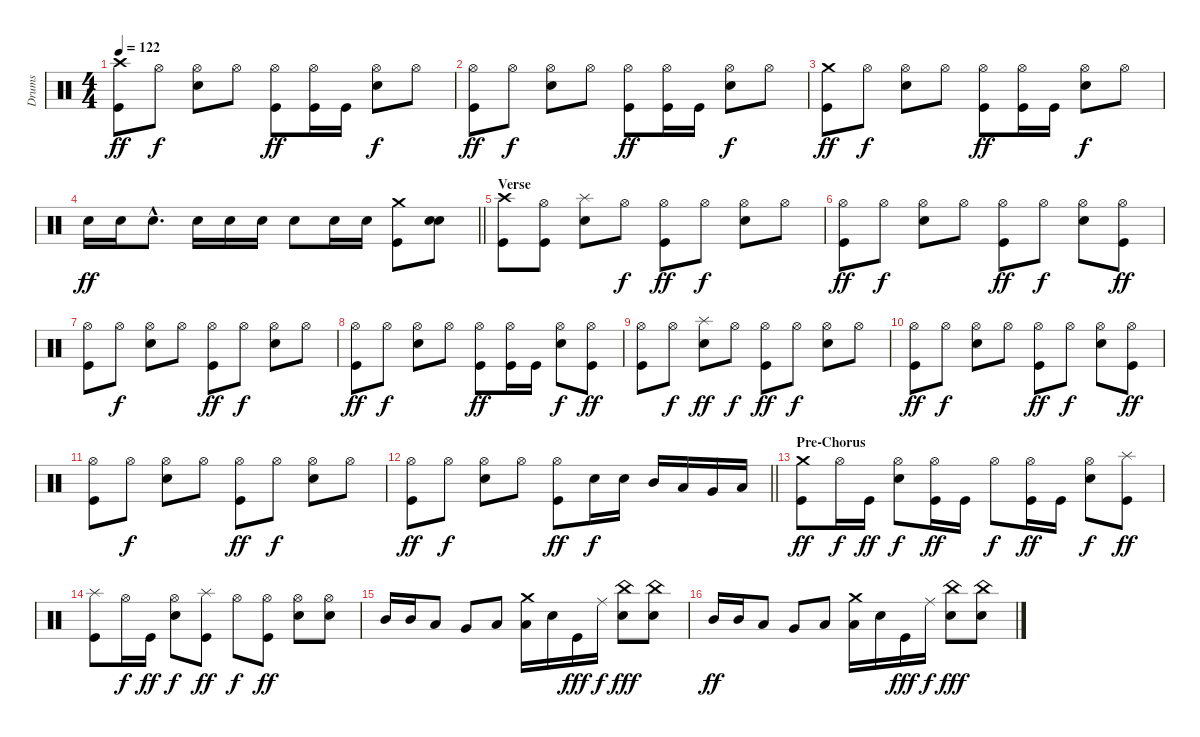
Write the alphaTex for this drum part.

\track ("Drums" "Drums") {instrument percussion}
\staff {score}
\articulation defaults
\ts (4 4)
\tempo 122
\clef neutral
\ks c
("Crash high (hit)" "Kick (hit)").8{dy ff} "Hi-Hat (open)".8{dy f} ("Hi-Hat (open)" "Snare (hit) 2").8 "Hi-Hat (open)".8 ("Hi-Hat (open)" "Kick (hit)").8{dy ff} ("Hi-Hat (open)" "Kick (hit)").16 "Kick (hit)".16 ("Hi-Hat (open)" "Snare (hit) 2").8{dy f} "Hi-Hat (open)".8 |
("Hi-Hat (open)" "Kick (hit)").8{dy ff} "Hi-Hat (open)".8{dy f} ("Hi-Hat (open)" "Snare (hit) 2").8 "Hi-Hat (open)".8 ("Hi-Hat (open)" "Kick (hit)").8{dy ff} ("Hi-Hat (open)" "Kick (hit)").16 "Kick (hit)".16 ("Hi-Hat (open)" "Snare (hit) 2").8{dy f} "Hi-Hat (open)".8 |
("Crash medium (hit)" "Kick (hit)").8{dy ff} "Hi-Hat (open)".8{dy f} ("Hi-Hat (open)" "Snare (hit) 2").8 "Hi-Hat (open)".8 ("Hi-Hat (open)" "Kick (hit)").8{dy ff} ("Hi-Hat (open)" "Kick (hit)").16 "Kick (hit)".16 ("Hi-Hat (open)" "Snare (hit) 2").8{dy f} "Hi-Hat (open)".8 |
\barLineRight lightlight "Snare (hit) 2".16{dy ff} "Snare (hit) 2".16 "Snare (hit) 2"{hac}.8{d} "Snare (hit) 2".16 "Snare (hit) 2".16 "Snare (hit) 2".16 "Snare (hit) 2".8 "Snare (hit) 2".16 "Snare (hit) 2".16
("Crash medium (hit)" "Kick (hit)").8 ("Snare (hit) 2" "Snare (hit) 2").8 |
\section ("" "Verse")
("Crash high (hit)" "Kick (hit)").8 ("Hi-Hat (open)" "Kick (hit)").8 ("Splash (hit)" "Snare (hit) 2").8 "Hi-Hat (open)".8{dy f} ("Hi-Hat (open)" "Kick (hit)").8{dy ff} "Hi-Hat (open)".8{dy f} ("Hi-Hat (open)" "Snare (hit) 2").8 "Hi-Hat (open)".8 |
("Hi-Hat (open)" "Kick (hit)").8{dy ff} "Hi-Hat (open)".8{dy f} ("Hi-Hat (open)" "Snare (hit) 2").8 "Hi-Hat (open)".8 ("Hi-Hat (open)" "Kick (hit)").8{dy ff} "Hi-Hat (open)".8{dy f} ("Hi-Hat (open)" "Snare (hit) 2").8 ("Hi-Hat (open)" "Kick (hit)").8{dy ff} |
("Hi-Hat (open)" "Kick (hit)").8 "Hi-Hat (open)".8{dy f} ("Hi-Hat (open)" "Snare (hit) 2").8 "Hi-Hat (open)".8 ("Hi-Hat (open)" "Kick (hit)").8{dy ff} "Hi-Hat (open)".8{dy f} ("Hi-Hat (open)" "Snare (hit) 2").8 "Hi-Hat (open)".8 |
("Hi-Hat (open)" "Kick (hit)").8{dy ff} "Hi-Hat (open)".8{dy f} ("Hi-Hat (open)" "Snare (hit) 2").8 "Hi-Hat (open)".8 ("Hi-Hat (open)" "Kick (hit)").8{dy ff} ("Hi-Hat (open)" "Kick (hit)").16 "Kick (hit)".16 ("Hi-Hat (open)" "Snare (hit) 2").8{dy f} ("Hi-Hat (open)" "Kick (hit)").8{dy ff} |
("Hi-Hat (open)" "Kick (hit)").8 "Hi-Hat (open)".8{dy f} ("Splash (hit)" "Snare (hit) 2").8{dy ff} "Hi-Hat (open)".8{dy f} ("Hi-Hat (open)" "Kick (hit)").8{dy ff} "Hi-Hat (open)".8{dy f} ("Hi-Hat (open)" "Snare (hit) 2").8 "Hi-Hat (open)".8 |
("Hi-Hat (open)" "Kick (hit)").8{dy ff} "Hi-Hat (open)".8{dy f} ("Hi-Hat (open)" "Snare (hit) 2").8 "Hi-Hat (open)".8 ("Hi-Hat (open)" "Kick (hit)").8{dy ff} "Hi-Hat (open)".8{dy f} ("Hi-Hat (open)" "Snare (hit) 2").8 ("Hi-Hat (open)" "Kick (hit)").8{dy ff} |
("Hi-Hat (open)" "Kick (hit)").8 "Hi-Hat (open)".8{dy f} ("Hi-Hat (open)" "Snare (hit) 2").8 "Hi-Hat (open)".8 ("Hi-Hat (open)" "Kick (hit)").8{dy ff} "Hi-Hat (open)".8{dy f} ("Hi-Hat (open)" "Snare (hit) 2").8 "Hi-Hat (open)".8 |
\barLineRight lightlight
("Hi-Hat (open)" "Kick (hit)").8{dy ff} "Hi-Hat (open)".8{dy f} ("Hi-Hat (open)" "Snare (hit) 2").8 "Hi-Hat (open)".8 ("Hi-Hat (open)" "Kick (hit)").8{dy ff} "Snare (hit) 2".16{dy f} "Snare (hit) 2".16 "Mid Tom (hit)".16 "Low Tom (hit)".16 "Very Low Tom (hit)".16 "Low Floor Tom (hit)".16 |
\section ("" "Pre-Chorus")
("Crash medium (hit)" "Kick (hit)").8{dy ff} "Hi-Hat (open)".16{dy f} "Kick (hit)".16{dy ff} ("Hi-Hat (open)" "Snare (hit) 2").8{dy f} ("Hi-Hat (open)" "Kick (hit)").16{dy ff} "Kick (hit)".16 "Hi-Hat (open)".8{dy f} ("Hi-Hat (open)" "Kick (hit)").16{dy ff} "Kick (hit)".16 ("Hi-Hat (open)" "Snare (hit) 2").8{dy f} ("Splash (hit)" "Kick (hit)").8{dy ff} |
("Splash (hit)" "Kick (hit)").8 "Hi-Hat (open)".16{dy f} "Kick (hit)".16{dy ff} ("Hi-Hat (open)" "Snare (hit) 2").8{dy f} ("Splash (hit)" "Kick (hit)").8{dy ff} "Hi-Hat (open)".8{dy f} ("Hi-Hat (open)" "Kick (hit)").8{dy ff} ("Hi-Hat (open)" "Snare (hit) 2").8 ("Hi-Hat (open)" "Snare (hit) 2").8 |
"Mid Tom (hit)".16 "Mid Tom (hit)".16 "Low Tom (hit)".8 "Very Low Tom (hit)".8 "Low Floor Tom (hit)".8 ("Crash medium (hit)" "Low Floor Tom (hit)").16 "Snare (hit) 2".16 "Kick (hit)".16{dy fff} "Ride (middle)".16{dy f} ("China (hit)" "Snare (hit) 2").8{dy fff} ("China (hit)" "Snare (hit) 2").8 |
"Mid Tom (hit)".16{dy ff} "Mid Tom (hit)".16 "Low Tom (hit)".8 "Very Low Tom (hit)".8 "Low Floor Tom (hit)".8 ("Crash medium (hit)" "Low Floor Tom (hit)").16 "Snare (hit) 2".16 "Kick (hit)".16{dy fff} "Ride (middle)".16{dy f} ("China (hit)" "Snare (hit) 2").8{dy fff} ("China (hit)" "Snare (hit) 2").8
